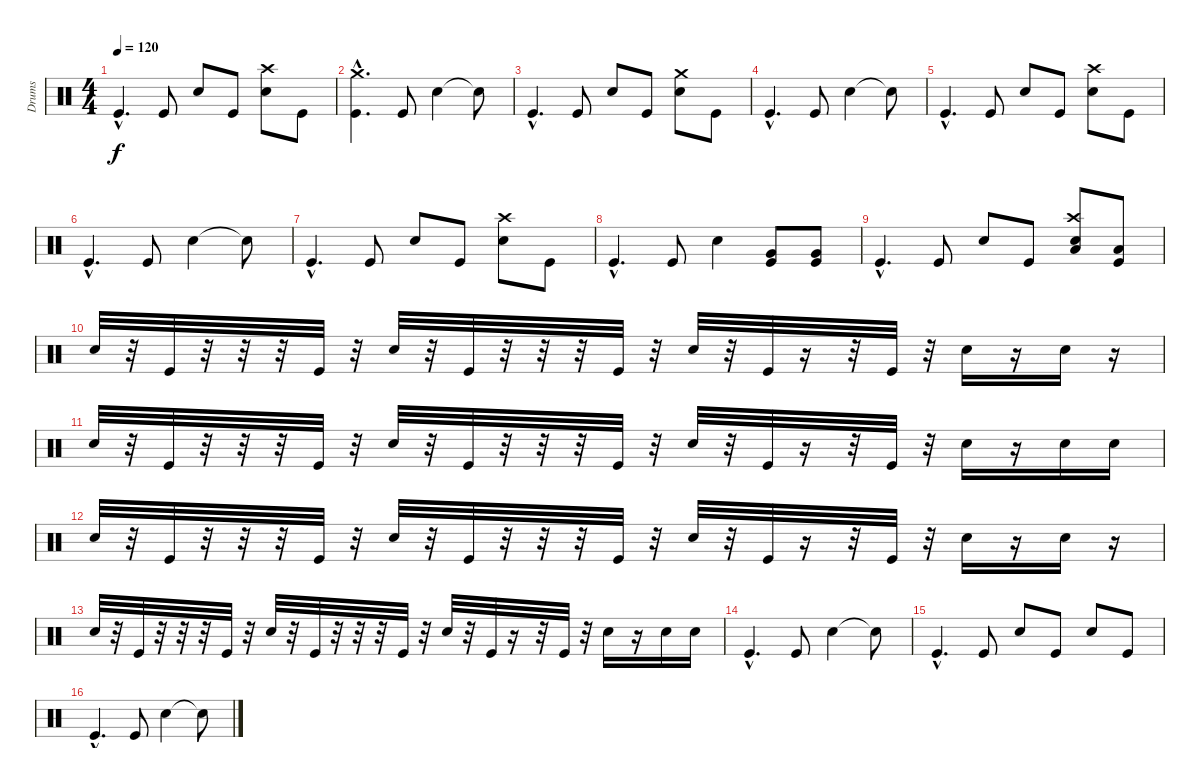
\track ("Drums" "Drums") {instrument percussion}
\staff {score}
\articulation defaults
\ts (4 4)
\tempo 120
\clef neutral
\ks c "Kick (hit)"{hac}.4{d dy f} "Kick (hit)".8 "Electric Snare (hit)".8 "Kick (hit)".8
("Electric Snare (hit)" "Crash high (hit)").8 "Kick (hit)".8 |
("Kick (hit)"{hac} "Crash medium (hit)"{hac}).4{d} "Kick (hit)".8 "Electric Snare (hit)".4 "Snare (hit)"{t}.8 |
"Kick (hit)"{hac}.4{d} "Kick (hit)".8 "Electric Snare (hit)".8 "Kick (hit)".8 ("Electric Snare (hit)" "Crash medium (hit)").8 "Kick (hit)".8 |
"Kick (hit)"{hac}.4{d} "Kick (hit)".8 "Electric Snare (hit)".4 "Snare (hit)"{t}.8 |
"Kick (hit)"{hac}.4{d} "Kick (hit)".8 "Electric Snare (hit)".8 "Kick (hit)".8 ("Electric Snare (hit)" "Crash high (hit)").8 "Kick (hit)".8 |
"Kick (hit)"{hac}.4{d} "Kick (hit)".8 "Electric Snare (hit)".4 "Snare (hit)"{t}.8 |
"Kick (hit)"{hac}.4{d} "Kick (hit)".8 "Electric Snare (hit)".8 "Kick (hit)".8 ("Electric Snare (hit)" "Crash high (hit)").8 "Kick (hit)".8 |
"Kick (hit)"{hac}.4{d} "Kick (hit)".8 "Electric Snare (hit)".4 ("Kick (hit)" "Very Low Tom (hit)").8 ("Kick (hit)" "Very Low Tom (hit)").8 |
"Kick (hit)"{hac}.4{d} "Kick (hit)".8 "Electric Snare (hit)".8 "Kick (hit)".8 ("Electric Snare (hit)" "Crash high (hit)" "Low Floor Tom (hit)").8 ("Kick (hit)" "Low Floor Tom (hit)").8 |
"Electric Snare (hit)".32 r.32 "Kick (hit)".32 r.32 r.32 r.32 "Kick (hit)".32 r.32 "Electric Snare (hit)".32 r.32 "Kick (hit)".32 r.32 r.32 r.32 "Kick (hit)".32 r.32 "Electric Snare (hit)".32 r.32 "Kick (hit)".32 r.16 r.32 "Kick (hit)".32 r.32 "Electric Snare (hit)".16 r.16 "Electric Snare (hit)".16 r.16 |
"Electric Snare (hit)".32 r.32 "Kick (hit)".32 r.32 r.32 r.32 "Kick (hit)".32 r.32 "Electric Snare (hit)".32 r.32 "Kick (hit)".32 r.32 r.32 r.32 "Kick (hit)".32 r.32 "Electric Snare (hit)".32 r.32 "Kick (hit)".32 r.16 r.32 "Kick (hit)".32 r.32 "Electric Snare (hit)".16 r.16 "Electric Snare (hit)".16 "Electric Snare (hit)".16 |
"Electric Snare (hit)".32 r.32 "Kick (hit)".32 r.32 r.32 r.32 "Kick (hit)".32 r.32 "Electric Snare (hit)".32 r.32 "Kick (hit)".32 r.32 r.32 r.32 "Kick (hit)".32 r.32 "Electric Snare (hit)".32 r.32 "Kick (hit)".32 r.16 r.32 "Kick (hit)".32 r.32 "Electric Snare (hit)".16 r.16 "Electric Snare (hit)".16 r.16 |
"Electric Snare (hit)".32 r.32 "Kick (hit)".32 r.32 r.32 r.32 "Kick (hit)".32 r.32 "Electric Snare (hit)".32 r.32 "Kick (hit)".32 r.32 r.32 r.32 "Kick (hit)".32 r.32 "Electric Snare (hit)".32 r.32 "Kick (hit)".32 r.16 r.32 "Kick (hit)".32 r.32 "Electric Snare (hit)".16 r.16 "Electric Snare (hit)".16 "Electric Snare (hit)".16 |
"Kick (hit)"{hac}.4{d} "Kick (hit)".8 "Electric Snare (hit)".4 "Snare (hit)"{t}.8 |
"Kick (hit)"{hac}.4{d} "Kick (hit)".8 "Electric Snare (hit)".8 "Kick (hit)".8 "Electric Snare (hit)".8 "Kick (hit)".8 |
"Kick (hit)"{hac}.4{d} "Kick (hit)".8 "Electric Snare (hit)".4 "Snare (hit)"{t}.8
